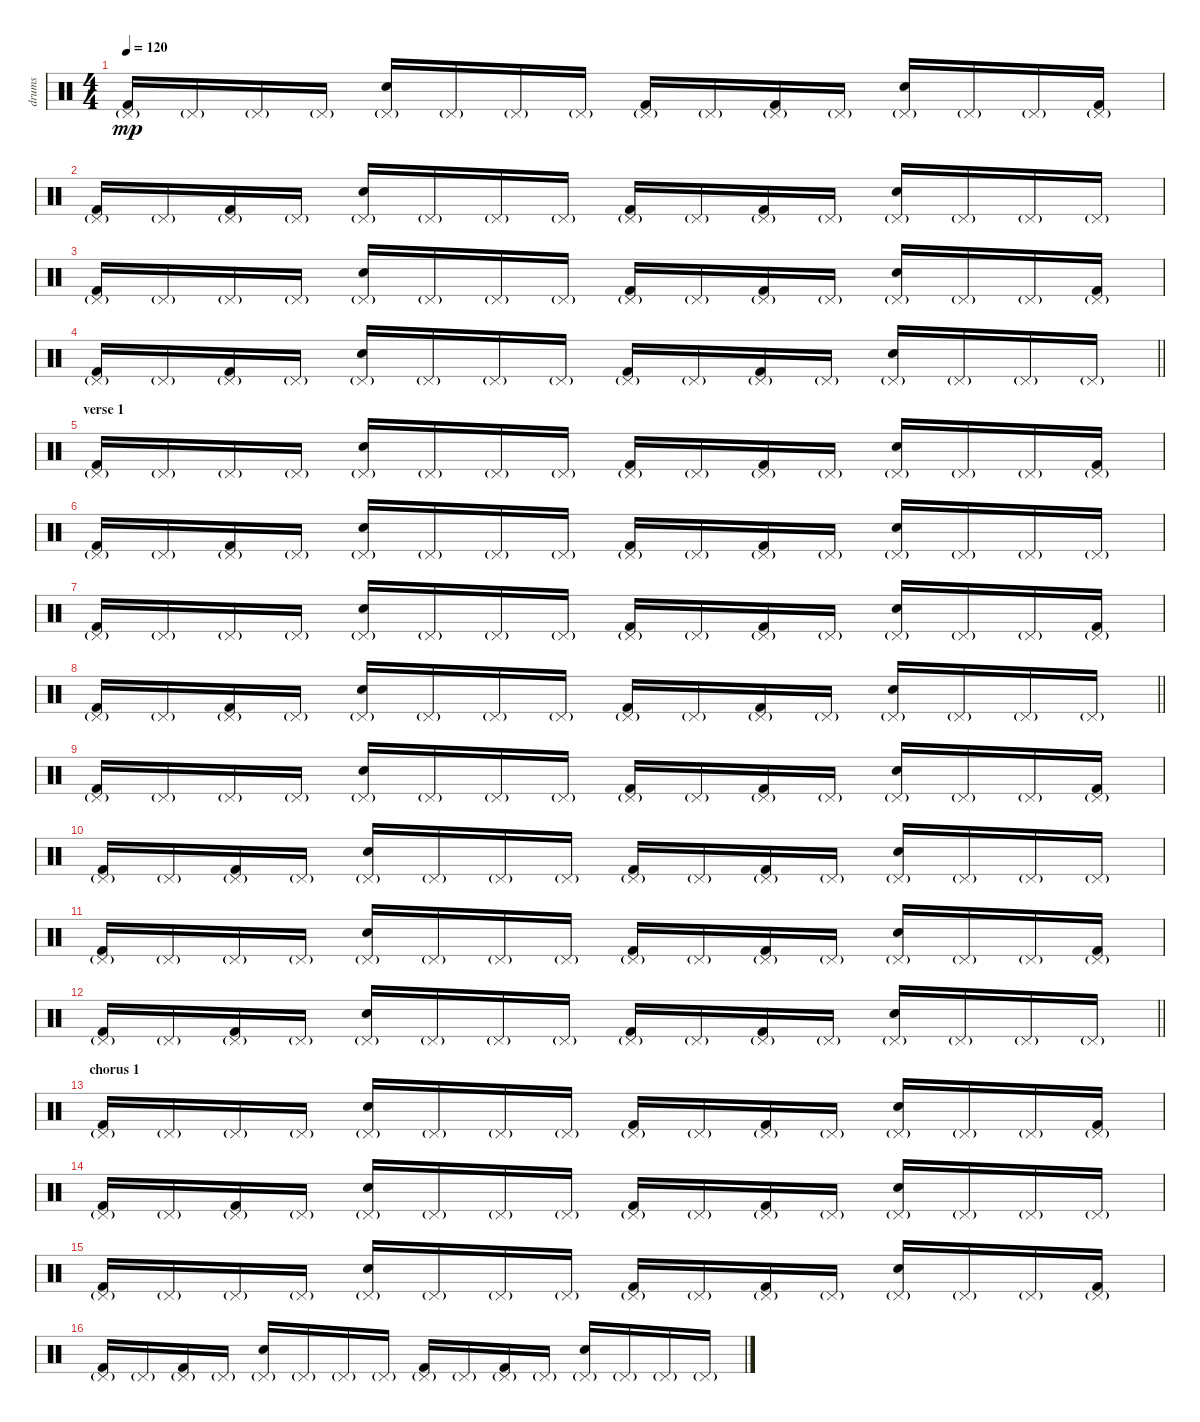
\track ("drums" "drums") {instrument percussion}
\staff {score}
\articulation defaults
\ts (4 4)
\tempo 120
\clef neutral
\ks c
("Kick (hit) 2" "Pedal Hi-Hat (hit)"{g}).16{dy mp} "Pedal Hi-Hat (hit)"{g}.16 "Pedal Hi-Hat (hit)"{g}.16 "Pedal Hi-Hat (hit)"{g}.16 ("Electric Snare (hit)" "Pedal Hi-Hat (hit)"{g}).16 "Pedal Hi-Hat (hit)"{g}.16 "Pedal Hi-Hat (hit)"{g}.16 "Pedal Hi-Hat (hit)"{g}.16 ("Kick (hit) 2" "Pedal Hi-Hat (hit)"{g}).16 "Pedal Hi-Hat (hit)"{g}.16 ("Kick (hit) 2" "Pedal Hi-Hat (hit)"{g}).16 "Pedal Hi-Hat (hit)"{g}.16 ("Electric Snare (hit)" "Pedal Hi-Hat (hit)"{g}).16 "Pedal Hi-Hat (hit)"{g}.16 "Pedal Hi-Hat (hit)"{g}.16 ("Kick (hit) 2" "Pedal Hi-Hat (hit)"{g}).16 |
("Kick (hit) 2" "Pedal Hi-Hat (hit)"{g}).16 "Pedal Hi-Hat (hit)"{g}.16 ("Kick (hit) 2" "Pedal Hi-Hat (hit)"{g}).16 "Pedal Hi-Hat (hit)"{g}.16 ("Electric Snare (hit)" "Pedal Hi-Hat (hit)"{g}).16 "Pedal Hi-Hat (hit)"{g}.16 "Pedal Hi-Hat (hit)"{g}.16 "Pedal Hi-Hat (hit)"{g}.16 ("Kick (hit) 2" "Pedal Hi-Hat (hit)"{g}).16 "Pedal Hi-Hat (hit)"{g}.16 ("Kick (hit) 2" "Pedal Hi-Hat (hit)"{g}).16 "Pedal Hi-Hat (hit)"{g}.16 ("Electric Snare (hit)" "Pedal Hi-Hat (hit)"{g}).16 "Pedal Hi-Hat (hit)"{g}.16 "Pedal Hi-Hat (hit)"{g}.16 "Pedal Hi-Hat (hit)"{g}.16 |
("Kick (hit) 2" "Pedal Hi-Hat (hit)"{g}).16 "Pedal Hi-Hat (hit)"{g}.16 "Pedal Hi-Hat (hit)"{g}.16 "Pedal Hi-Hat (hit)"{g}.16 ("Electric Snare (hit)" "Pedal Hi-Hat (hit)"{g}).16 "Pedal Hi-Hat (hit)"{g}.16 "Pedal Hi-Hat (hit)"{g}.16 "Pedal Hi-Hat (hit)"{g}.16 ("Kick (hit) 2" "Pedal Hi-Hat (hit)"{g}).16 "Pedal Hi-Hat (hit)"{g}.16 ("Kick (hit) 2" "Pedal Hi-Hat (hit)"{g}).16 "Pedal Hi-Hat (hit)"{g}.16 ("Electric Snare (hit)" "Pedal Hi-Hat (hit)"{g}).16 "Pedal Hi-Hat (hit)"{g}.16 "Pedal Hi-Hat (hit)"{g}.16 ("Kick (hit) 2" "Pedal Hi-Hat (hit)"{g}).16 |
\barLineRight lightlight
("Kick (hit) 2" "Pedal Hi-Hat (hit)"{g}).16 "Pedal Hi-Hat (hit)"{g}.16 ("Kick (hit) 2" "Pedal Hi-Hat (hit)"{g}).16 "Pedal Hi-Hat (hit)"{g}.16 ("Electric Snare (hit)" "Pedal Hi-Hat (hit)"{g}).16 "Pedal Hi-Hat (hit)"{g}.16 "Pedal Hi-Hat (hit)"{g}.16 "Pedal Hi-Hat (hit)"{g}.16 ("Kick (hit) 2" "Pedal Hi-Hat (hit)"{g}).16 "Pedal Hi-Hat (hit)"{g}.16 ("Kick (hit) 2" "Pedal Hi-Hat (hit)"{g}).16 "Pedal Hi-Hat (hit)"{g}.16 ("Electric Snare (hit)" "Pedal Hi-Hat (hit)"{g}).16 "Pedal Hi-Hat (hit)"{g}.16 "Pedal Hi-Hat (hit)"{g}.16 "Pedal Hi-Hat (hit)"{g}.16 |
\section ("" "verse 1")
("Kick (hit) 2" "Pedal Hi-Hat (hit)"{g}).16 "Pedal Hi-Hat (hit)"{g}.16 "Pedal Hi-Hat (hit)"{g}.16 "Pedal Hi-Hat (hit)"{g}.16 ("Hand Clap (hit)" "Pedal Hi-Hat (hit)"{g}).16 "Pedal Hi-Hat (hit)"{g}.16 "Pedal Hi-Hat (hit)"{g}.16 "Pedal Hi-Hat (hit)"{g}.16 ("Kick (hit) 2" "Pedal Hi-Hat (hit)"{g}).16 "Pedal Hi-Hat (hit)"{g}.16 ("Kick (hit) 2" "Pedal Hi-Hat (hit)"{g}).16 "Pedal Hi-Hat (hit)"{g}.16 ("Hand Clap (hit)" "Pedal Hi-Hat (hit)"{g}).16 "Pedal Hi-Hat (hit)"{g}.16 "Pedal Hi-Hat (hit)"{g}.16 ("Kick (hit) 2" "Pedal Hi-Hat (hit)"{g}).16 |
("Kick (hit) 2" "Pedal Hi-Hat (hit)"{g}).16 "Pedal Hi-Hat (hit)"{g}.16 ("Kick (hit) 2" "Pedal Hi-Hat (hit)"{g}).16 "Pedal Hi-Hat (hit)"{g}.16 ("Hand Clap (hit)" "Pedal Hi-Hat (hit)"{g}).16 "Pedal Hi-Hat (hit)"{g}.16 "Pedal Hi-Hat (hit)"{g}.16 "Pedal Hi-Hat (hit)"{g}.16 ("Kick (hit) 2" "Pedal Hi-Hat (hit)"{g}).16 "Pedal Hi-Hat (hit)"{g}.16 ("Kick (hit) 2" "Pedal Hi-Hat (hit)"{g}).16 "Pedal Hi-Hat (hit)"{g}.16 ("Hand Clap (hit)" "Pedal Hi-Hat (hit)"{g}).16 "Pedal Hi-Hat (hit)"{g}.16 "Pedal Hi-Hat (hit)"{g}.16 "Pedal Hi-Hat (hit)"{g}.16 |
("Kick (hit) 2" "Pedal Hi-Hat (hit)"{g}).16 "Pedal Hi-Hat (hit)"{g}.16 "Pedal Hi-Hat (hit)"{g}.16 "Pedal Hi-Hat (hit)"{g}.16 ("Hand Clap (hit)" "Pedal Hi-Hat (hit)"{g}).16 "Pedal Hi-Hat (hit)"{g}.16 "Pedal Hi-Hat (hit)"{g}.16 "Pedal Hi-Hat (hit)"{g}.16 ("Kick (hit) 2" "Pedal Hi-Hat (hit)"{g}).16 "Pedal Hi-Hat (hit)"{g}.16 ("Kick (hit) 2" "Pedal Hi-Hat (hit)"{g}).16 "Pedal Hi-Hat (hit)"{g}.16 ("Hand Clap (hit)" "Pedal Hi-Hat (hit)"{g}).16 "Pedal Hi-Hat (hit)"{g}.16 "Pedal Hi-Hat (hit)"{g}.16 ("Kick (hit) 2" "Pedal Hi-Hat (hit)"{g}).16 |
\barLineRight lightlight
("Kick (hit) 2" "Pedal Hi-Hat (hit)"{g}).16 "Pedal Hi-Hat (hit)"{g}.16 ("Kick (hit) 2" "Pedal Hi-Hat (hit)"{g}).16 "Pedal Hi-Hat (hit)"{g}.16 ("Hand Clap (hit)" "Pedal Hi-Hat (hit)"{g}).16 "Pedal Hi-Hat (hit)"{g}.16 "Pedal Hi-Hat (hit)"{g}.16 "Pedal Hi-Hat (hit)"{g}.16 ("Kick (hit) 2" "Pedal Hi-Hat (hit)"{g}).16 "Pedal Hi-Hat (hit)"{g}.16 ("Kick (hit) 2" "Pedal Hi-Hat (hit)"{g}).16 "Pedal Hi-Hat (hit)"{g}.16 ("Hand Clap (hit)" "Pedal Hi-Hat (hit)"{g}).16 "Pedal Hi-Hat (hit)"{g}.16 "Pedal Hi-Hat (hit)"{g}.16 "Pedal Hi-Hat (hit)"{g}.16 |
("Kick (hit) 2" "Pedal Hi-Hat (hit)"{g}).16 "Pedal Hi-Hat (hit)"{g}.16 "Pedal Hi-Hat (hit)"{g}.16 "Pedal Hi-Hat (hit)"{g}.16 ("Hand Clap (hit)" "Pedal Hi-Hat (hit)"{g}).16 "Pedal Hi-Hat (hit)"{g}.16 "Pedal Hi-Hat (hit)"{g}.16 "Pedal Hi-Hat (hit)"{g}.16 ("Kick (hit) 2" "Pedal Hi-Hat (hit)"{g}).16 "Pedal Hi-Hat (hit)"{g}.16 ("Kick (hit) 2" "Pedal Hi-Hat (hit)"{g}).16 "Pedal Hi-Hat (hit)"{g}.16 ("Hand Clap (hit)" "Pedal Hi-Hat (hit)"{g}).16 "Pedal Hi-Hat (hit)"{g}.16 "Pedal Hi-Hat (hit)"{g}.16 ("Kick (hit) 2" "Pedal Hi-Hat (hit)"{g}).16 |
("Kick (hit) 2" "Pedal Hi-Hat (hit)"{g}).16 "Pedal Hi-Hat (hit)"{g}.16 ("Kick (hit) 2" "Pedal Hi-Hat (hit)"{g}).16 "Pedal Hi-Hat (hit)"{g}.16 ("Hand Clap (hit)" "Pedal Hi-Hat (hit)"{g}).16 "Pedal Hi-Hat (hit)"{g}.16 "Pedal Hi-Hat (hit)"{g}.16 "Pedal Hi-Hat (hit)"{g}.16 ("Kick (hit) 2" "Pedal Hi-Hat (hit)"{g}).16 "Pedal Hi-Hat (hit)"{g}.16 ("Kick (hit) 2" "Pedal Hi-Hat (hit)"{g}).16 "Pedal Hi-Hat (hit)"{g}.16 ("Hand Clap (hit)" "Pedal Hi-Hat (hit)"{g}).16 "Pedal Hi-Hat (hit)"{g}.16 "Pedal Hi-Hat (hit)"{g}.16 "Pedal Hi-Hat (hit)"{g}.16 |
("Kick (hit) 2" "Pedal Hi-Hat (hit)"{g}).16 "Pedal Hi-Hat (hit)"{g}.16 "Pedal Hi-Hat (hit)"{g}.16 "Pedal Hi-Hat (hit)"{g}.16 ("Hand Clap (hit)" "Pedal Hi-Hat (hit)"{g}).16 "Pedal Hi-Hat (hit)"{g}.16 "Pedal Hi-Hat (hit)"{g}.16 "Pedal Hi-Hat (hit)"{g}.16 ("Kick (hit) 2" "Pedal Hi-Hat (hit)"{g}).16 "Pedal Hi-Hat (hit)"{g}.16 ("Kick (hit) 2" "Pedal Hi-Hat (hit)"{g}).16 "Pedal Hi-Hat (hit)"{g}.16 ("Hand Clap (hit)" "Pedal Hi-Hat (hit)"{g}).16 "Pedal Hi-Hat (hit)"{g}.16 "Pedal Hi-Hat (hit)"{g}.16 ("Kick (hit) 2" "Pedal Hi-Hat (hit)"{g}).16 |
\barLineRight lightlight
("Kick (hit) 2" "Pedal Hi-Hat (hit)"{g}).16 "Pedal Hi-Hat (hit)"{g}.16 ("Kick (hit) 2" "Pedal Hi-Hat (hit)"{g}).16 "Pedal Hi-Hat (hit)"{g}.16 ("Hand Clap (hit)" "Pedal Hi-Hat (hit)"{g}).16 "Pedal Hi-Hat (hit)"{g}.16 "Pedal Hi-Hat (hit)"{g}.16 "Pedal Hi-Hat (hit)"{g}.16 ("Kick (hit) 2" "Pedal Hi-Hat (hit)"{g}).16 "Pedal Hi-Hat (hit)"{g}.16 ("Kick (hit) 2" "Pedal Hi-Hat (hit)"{g}).16 "Pedal Hi-Hat (hit)"{g}.16 ("Hand Clap (hit)" "Pedal Hi-Hat (hit)"{g}).16 "Pedal Hi-Hat (hit)"{g}.16 "Pedal Hi-Hat (hit)"{g}.16 "Pedal Hi-Hat (hit)"{g}.16 |
\section ("" "chorus 1")
("Kick (hit) 2" "Pedal Hi-Hat (hit)"{g}).16 "Pedal Hi-Hat (hit)"{g}.16 "Pedal Hi-Hat (hit)"{g}.16 "Pedal Hi-Hat (hit)"{g}.16 ("Electric Snare (hit)" "Pedal Hi-Hat (hit)"{g}).16 "Pedal Hi-Hat (hit)"{g}.16 "Pedal Hi-Hat (hit)"{g}.16 "Pedal Hi-Hat (hit)"{g}.16 ("Kick (hit) 2" "Pedal Hi-Hat (hit)"{g}).16 "Pedal Hi-Hat (hit)"{g}.16 ("Kick (hit) 2" "Pedal Hi-Hat (hit)"{g}).16 "Pedal Hi-Hat (hit)"{g}.16 ("Electric Snare (hit)" "Pedal Hi-Hat (hit)"{g}).16 "Pedal Hi-Hat (hit)"{g}.16 "Pedal Hi-Hat (hit)"{g}.16 ("Kick (hit) 2" "Pedal Hi-Hat (hit)"{g}).16 |
("Kick (hit) 2" "Pedal Hi-Hat (hit)"{g}).16 "Pedal Hi-Hat (hit)"{g}.16 ("Kick (hit) 2" "Pedal Hi-Hat (hit)"{g}).16 "Pedal Hi-Hat (hit)"{g}.16 ("Electric Snare (hit)" "Pedal Hi-Hat (hit)"{g}).16 "Pedal Hi-Hat (hit)"{g}.16 "Pedal Hi-Hat (hit)"{g}.16 "Pedal Hi-Hat (hit)"{g}.16 ("Kick (hit) 2" "Pedal Hi-Hat (hit)"{g}).16 "Pedal Hi-Hat (hit)"{g}.16 ("Kick (hit) 2" "Pedal Hi-Hat (hit)"{g}).16 "Pedal Hi-Hat (hit)"{g}.16 ("Electric Snare (hit)" "Pedal Hi-Hat (hit)"{g}).16 "Pedal Hi-Hat (hit)"{g}.16 "Pedal Hi-Hat (hit)"{g}.16 "Pedal Hi-Hat (hit)"{g}.16 |
("Kick (hit) 2" "Pedal Hi-Hat (hit)"{g}).16 "Pedal Hi-Hat (hit)"{g}.16 "Pedal Hi-Hat (hit)"{g}.16 "Pedal Hi-Hat (hit)"{g}.16 ("Electric Snare (hit)" "Pedal Hi-Hat (hit)"{g}).16 "Pedal Hi-Hat (hit)"{g}.16 "Pedal Hi-Hat (hit)"{g}.16 "Pedal Hi-Hat (hit)"{g}.16 ("Kick (hit) 2" "Pedal Hi-Hat (hit)"{g}).16 "Pedal Hi-Hat (hit)"{g}.16 ("Kick (hit) 2" "Pedal Hi-Hat (hit)"{g}).16 "Pedal Hi-Hat (hit)"{g}.16 ("Electric Snare (hit)" "Pedal Hi-Hat (hit)"{g}).16 "Pedal Hi-Hat (hit)"{g}.16 "Pedal Hi-Hat (hit)"{g}.16 ("Kick (hit) 2" "Pedal Hi-Hat (hit)"{g}).16 |
("Kick (hit) 2" "Pedal Hi-Hat (hit)"{g}).16 "Pedal Hi-Hat (hit)"{g}.16 ("Kick (hit) 2" "Pedal Hi-Hat (hit)"{g}).16 "Pedal Hi-Hat (hit)"{g}.16 ("Electric Snare (hit)" "Pedal Hi-Hat (hit)"{g}).16 "Pedal Hi-Hat (hit)"{g}.16 "Pedal Hi-Hat (hit)"{g}.16 "Pedal Hi-Hat (hit)"{g}.16 ("Kick (hit) 2" "Pedal Hi-Hat (hit)"{g}).16 "Pedal Hi-Hat (hit)"{g}.16 ("Kick (hit) 2" "Pedal Hi-Hat (hit)"{g}).16 "Pedal Hi-Hat (hit)"{g}.16 ("Electric Snare (hit)" "Pedal Hi-Hat (hit)"{g}).16 "Pedal Hi-Hat (hit)"{g}.16 "Pedal Hi-Hat (hit)"{g}.16 "Pedal Hi-Hat (hit)"{g}.16
